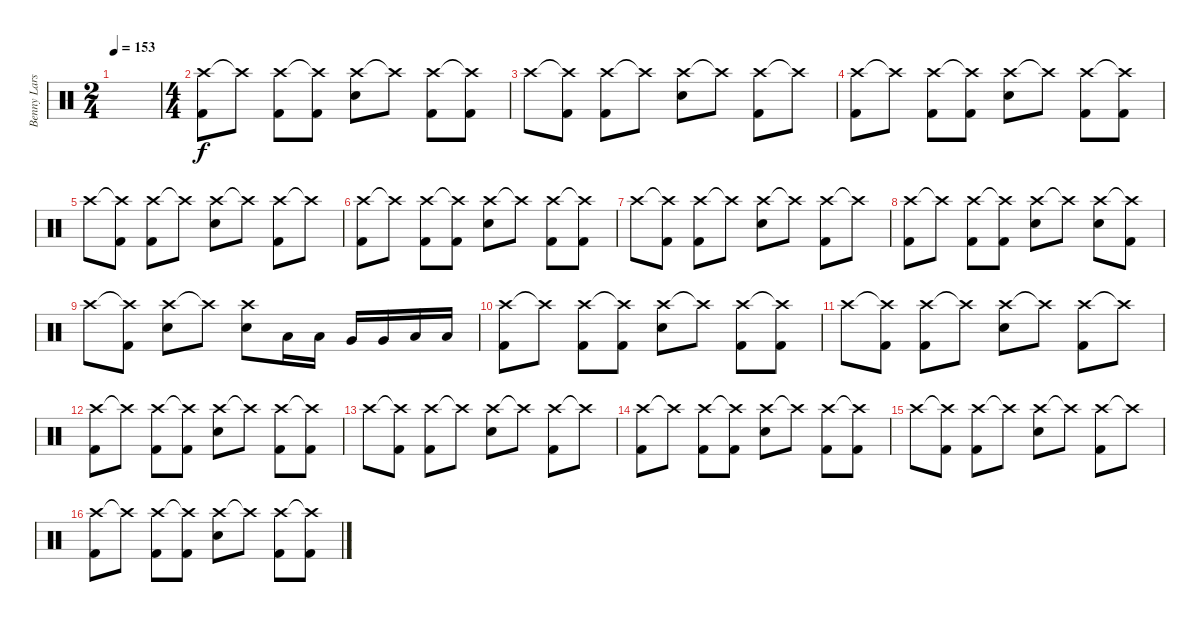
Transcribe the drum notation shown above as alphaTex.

\track ("Benny Larsson" "Benny Lars") {instrument percussion}
\staff {score}
\articulation defaults
\ts (2 4)
\tempo 153
\clef neutral
\ks c
|
\ts (4 4)
("Crash high (hit)" "Kick (hit) 2").8 "Crash high (hit)"{t}.8 ("Crash high (hit)" "Kick (hit) 2").8 ("Crash high (hit)"{t} "Kick (hit) 2").8 ("Crash high (hit)" "Electric Snare (hit)").8 "Crash high (hit)"{t}.8 ("Crash high (hit)" "Kick (hit) 2").8 ("Crash high (hit)"{t} "Kick (hit) 2").8 |
"Crash high (hit)".8 ("Crash high (hit)"{t} "Kick (hit) 2").8 ("Crash high (hit)" "Kick (hit) 2").8 "Crash high (hit)"{t}.8 ("Crash high (hit)" "Electric Snare (hit)").8 "Crash high (hit)"{t}.8 ("Crash high (hit)" "Kick (hit) 2").8 "Crash high (hit)"{t}.8 |
("Crash high (hit)" "Kick (hit) 2").8 "Crash high (hit)"{t}.8 ("Crash high (hit)" "Kick (hit) 2").8 ("Crash high (hit)"{t} "Kick (hit) 2").8 ("Crash high (hit)" "Electric Snare (hit)").8 "Crash high (hit)"{t}.8 ("Crash high (hit)" "Kick (hit) 2").8 ("Crash high (hit)"{t} "Kick (hit) 2").8 |
"Crash high (hit)".8 ("Crash high (hit)"{t} "Kick (hit) 2").8 ("Crash high (hit)" "Kick (hit) 2").8 "Crash high (hit)"{t}.8 ("Crash high (hit)" "Electric Snare (hit)").8 "Crash high (hit)"{t}.8 ("Crash high (hit)" "Kick (hit) 2").8 "Crash high (hit)"{t}.8 |
("Crash high (hit)" "Kick (hit) 2").8 "Crash high (hit)"{t}.8 ("Crash high (hit)" "Kick (hit) 2").8 ("Crash high (hit)"{t} "Kick (hit) 2").8 ("Crash high (hit)" "Electric Snare (hit)").8 "Crash high (hit)"{t}.8 ("Crash high (hit)" "Kick (hit) 2").8 ("Crash high (hit)"{t} "Kick (hit) 2").8 |
"Crash high (hit)".8 ("Crash high (hit)"{t} "Kick (hit) 2").8 ("Crash high (hit)" "Kick (hit) 2").8 "Crash high (hit)"{t}.8 ("Crash high (hit)" "Electric Snare (hit)").8 "Crash high (hit)"{t}.8 ("Crash high (hit)" "Kick (hit) 2").8 "Crash high (hit)"{t}.8 |
("Crash high (hit)" "Kick (hit) 2").8 "Crash high (hit)"{t}.8 ("Crash high (hit)" "Kick (hit) 2").8 ("Crash high (hit)"{t} "Kick (hit) 2").8 ("Crash high (hit)" "Electric Snare (hit)").8 "Crash high (hit)"{t}.8 ("Crash high (hit)" "Electric Snare (hit)").8 ("Crash high (hit)"{t} "Kick (hit) 2").8 |
"Crash high (hit)".8 ("Crash high (hit)"{t} "Kick (hit) 2").8 ("Crash high (hit)" "Electric Snare (hit)").8 "Crash high (hit)"{t}.8 ("Crash high (hit)" "Electric Snare (hit)").8 "Low Tom (hit)".16 "Low Tom (hit)".16 "Very Low Tom (hit)".16 "Very Low Tom (hit)".16 "Low Floor Tom (hit)".16 "Low Floor Tom (hit)".16 |
("Crash high (hit)" "Kick (hit) 2").8 "Crash high (hit)"{t}.8 ("Crash high (hit)" "Kick (hit) 2").8 ("Crash high (hit)"{t} "Kick (hit) 2").8 ("Crash high (hit)" "Electric Snare (hit)").8 "Crash high (hit)"{t}.8 ("Crash high (hit)" "Kick (hit) 2").8 ("Crash high (hit)"{t} "Kick (hit) 2").8 |
"Crash high (hit)".8 ("Crash high (hit)"{t} "Kick (hit) 2").8 ("Crash high (hit)" "Kick (hit) 2").8 "Crash high (hit)"{t}.8 ("Crash high (hit)" "Electric Snare (hit)").8 "Crash high (hit)"{t}.8 ("Crash high (hit)" "Kick (hit) 2").8 "Crash high (hit)"{t}.8 |
("Crash high (hit)" "Kick (hit) 2").8 "Crash high (hit)"{t}.8 ("Crash high (hit)" "Kick (hit) 2").8 ("Crash high (hit)"{t} "Kick (hit) 2").8 ("Crash high (hit)" "Electric Snare (hit)").8 "Crash high (hit)"{t}.8 ("Crash high (hit)" "Kick (hit) 2").8 ("Crash high (hit)"{t} "Kick (hit) 2").8 |
"Crash high (hit)".8 ("Crash high (hit)"{t} "Kick (hit) 2").8 ("Crash high (hit)" "Kick (hit) 2").8 "Crash high (hit)"{t}.8 ("Crash high (hit)" "Electric Snare (hit)").8 "Crash high (hit)"{t}.8 ("Crash high (hit)" "Kick (hit) 2").8 "Crash high (hit)"{t}.8 |
("Crash high (hit)" "Kick (hit) 2").8 "Crash high (hit)"{t}.8 ("Crash high (hit)" "Kick (hit) 2").8 ("Crash high (hit)"{t} "Kick (hit) 2").8 ("Crash high (hit)" "Electric Snare (hit)").8 "Crash high (hit)"{t}.8 ("Crash high (hit)" "Kick (hit) 2").8 ("Crash high (hit)"{t} "Kick (hit) 2").8 |
"Crash high (hit)".8 ("Crash high (hit)"{t} "Kick (hit) 2").8 ("Crash high (hit)" "Kick (hit) 2").8 "Crash high (hit)"{t}.8 ("Crash high (hit)" "Electric Snare (hit)").8 "Crash high (hit)"{t}.8 ("Crash high (hit)" "Kick (hit) 2").8 "Crash high (hit)"{t}.8 |
("Crash high (hit)" "Kick (hit) 2").8 "Crash high (hit)"{t}.8 ("Crash high (hit)" "Kick (hit) 2").8 ("Crash high (hit)"{t} "Kick (hit) 2").8 ("Crash high (hit)" "Electric Snare (hit)").8 "Crash high (hit)"{t}.8 ("Crash high (hit)" "Kick (hit) 2").8 ("Crash high (hit)"{t} "Kick (hit) 2").8
